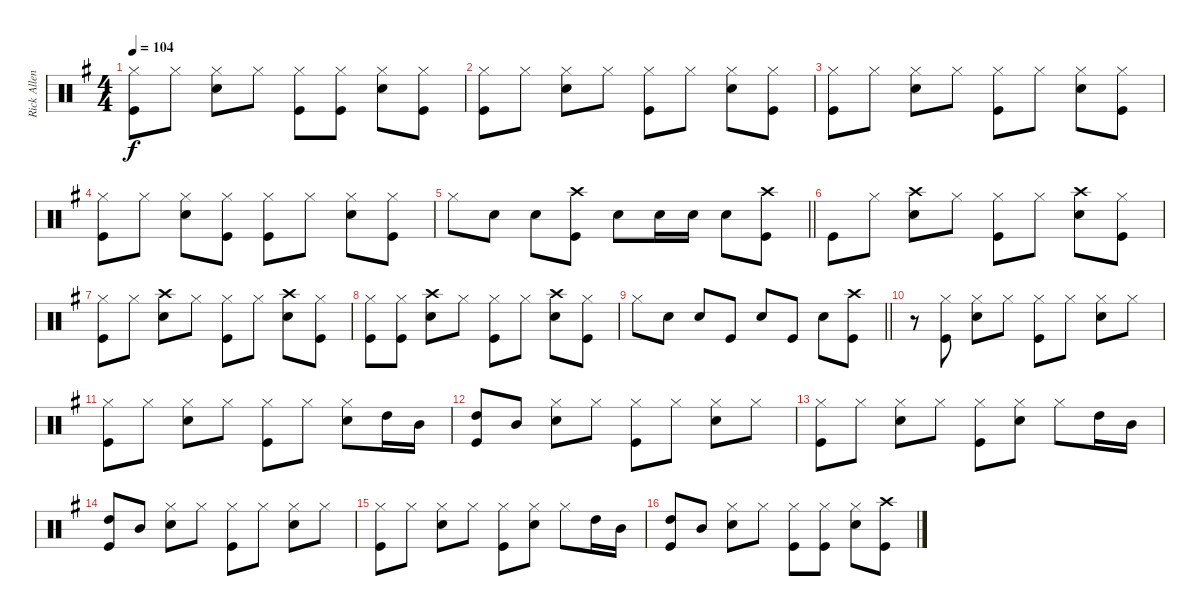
\track ("Rick Allen" "Rick Allen") {instrument percussion}
\staff {score}
\articulation defaults
\ts (4 4)
\tempo 104
\clef neutral
\ks eminor
("Hi-Hat (closed)" "Kick (hit)").8{dy f} "Hi-Hat (closed)".8 ("Hi-Hat (closed)" "Snare (hit) 2").8 "Hi-Hat (closed)".8 ("Hi-Hat (closed)" "Kick (hit)").8 ("Hi-Hat (closed)" "Kick (hit)").8 ("Hi-Hat (closed)" "Snare (hit) 2").8 ("Hi-Hat (closed)" "Kick (hit)").8 |
("Hi-Hat (closed)" "Kick (hit)").8 "Hi-Hat (closed)".8 ("Hi-Hat (closed)" "Snare (hit) 2").8 "Hi-Hat (closed)".8 ("Hi-Hat (closed)" "Kick (hit)").8 "Hi-Hat (closed)".8 ("Hi-Hat (closed)" "Snare (hit) 2").8 ("Hi-Hat (closed)" "Kick (hit)").8 |
("Hi-Hat (closed)" "Kick (hit)").8 "Hi-Hat (closed)".8 ("Hi-Hat (closed)" "Snare (hit) 2").8 "Hi-Hat (closed)".8 ("Hi-Hat (closed)" "Kick (hit)").8 "Hi-Hat (closed)".8 ("Hi-Hat (closed)" "Snare (hit) 2").8 ("Hi-Hat (closed)" "Kick (hit)").8 |
("Hi-Hat (closed)" "Kick (hit)").8 "Hi-Hat (closed)".8 ("Hi-Hat (closed)" "Snare (hit) 2").8 ("Hi-Hat (closed)" "Kick (hit)").8 ("Hi-Hat (closed)" "Kick (hit)").8 "Hi-Hat (closed)".8 ("Hi-Hat (closed)" "Snare (hit) 2").8 ("Hi-Hat (closed)" "Kick (hit)").8 |
\barLineRight lightlight "Hi-Hat (closed)".8 "Snare (hit) 2".8 "Snare (hit) 2".8
("Crash high (hit)" "Kick (hit)").8 "Snare (hit) 2".8 "Snare (hit) 2".16 "Snare (hit) 2".16 "Snare (hit) 2".8 ("Crash high (hit)" "Kick (hit)").8 |
"Kick (hit)".8 "Hi-Hat (closed)".8 ("Crash high (hit)" "Snare (hit) 2").8 "Hi-Hat (closed)".8 ("Hi-Hat (closed)" "Kick (hit)").8 "Hi-Hat (closed)".8 ("Crash high (hit)" "Snare (hit) 2").8 ("Hi-Hat (closed)" "Kick (hit)").8 |
("Hi-Hat (closed)" "Kick (hit)").8 "Hi-Hat (closed)".8 ("Crash high (hit)" "Snare (hit) 2").8 "Hi-Hat (closed)".8 ("Hi-Hat (closed)" "Kick (hit)").8 "Hi-Hat (closed)".8 ("Crash high (hit)" "Snare (hit) 2").8 ("Hi-Hat (closed)" "Kick (hit)").8 |
("Hi-Hat (closed)" "Kick (hit)").8 ("Hi-Hat (closed)" "Kick (hit)").8 ("Crash high (hit)" "Snare (hit) 2").8 "Hi-Hat (closed)".8 ("Hi-Hat (closed)" "Kick (hit)").8 "Hi-Hat (closed)".8 ("Crash high (hit)" "Snare (hit) 2").8 ("Hi-Hat (closed)" "Kick (hit)").8 |
\barLineRight lightlight "Hi-Hat (closed)".8 "Snare (hit) 2".8 "Snare (hit) 2".8 "Kick (hit)".8 "Snare (hit) 2".8 "Kick (hit)".8 "Snare (hit) 2".8
("Crash high (hit)" "Kick (hit)").8 |
r.8 ("Hi-Hat (closed)" "Kick (hit)").8 ("Hi-Hat (closed)" "Snare (hit) 2").8 "Hi-Hat (closed)".8 ("Hi-Hat (closed)" "Kick (hit)").8 "Hi-Hat (closed)".8 ("Hi-Hat (closed)" "Snare (hit) 2").8 "Hi-Hat (closed)".8 |
("Hi-Hat (closed)" "Kick (hit)").8 "Hi-Hat (closed)".8 ("Hi-Hat (closed)" "Snare (hit) 2").8 "Hi-Hat (closed)".8 ("Hi-Hat (closed)" "Kick (hit)").8 "Hi-Hat (closed)".8 ("Hi-Hat (closed)" "Snare (hit) 2").8 "High Tom (hit)".16 "Mid Tom (hit)".16 |
("High Tom (hit)" "Kick (hit)").8 "Mid Tom (hit)".8 ("Hi-Hat (closed)" "Snare (hit) 2").8 "Hi-Hat (closed)".8 ("Hi-Hat (closed)" "Kick (hit)").8 "Hi-Hat (closed)".8 ("Hi-Hat (closed)" "Snare (hit) 2").8 "Hi-Hat (closed)".8 |
("Hi-Hat (closed)" "Kick (hit)").8 "Hi-Hat (closed)".8 ("Hi-Hat (closed)" "Snare (hit) 2").8 "Hi-Hat (closed)".8 ("Hi-Hat (closed)" "Kick (hit)").8 ("Hi-Hat (closed)" "Snare (hit) 2").8 "Hi-Hat (closed)".8 "High Tom (hit)".16 "Mid Tom (hit)".16 |
("High Tom (hit)" "Kick (hit)").8 "Mid Tom (hit)".8 ("Hi-Hat (closed)" "Snare (hit) 2").8 "Hi-Hat (closed)".8 ("Hi-Hat (closed)" "Kick (hit)").8 "Hi-Hat (closed)".8 ("Hi-Hat (closed)" "Snare (hit) 2").8 "Hi-Hat (closed)".8 |
("Hi-Hat (closed)" "Kick (hit)").8 "Hi-Hat (closed)".8 ("Hi-Hat (closed)" "Snare (hit) 2").8 "Hi-Hat (closed)".8 ("Hi-Hat (closed)" "Kick (hit)").8 ("Hi-Hat (closed)" "Snare (hit) 2").8 "Hi-Hat (closed)".8 "High Tom (hit)".16 "Mid Tom (hit)".16 |
("High Tom (hit)" "Kick (hit)").8 "Mid Tom (hit)".8 ("Hi-Hat (closed)" "Snare (hit) 2").8 "Hi-Hat (closed)".8 ("Hi-Hat (closed)" "Kick (hit)").8 ("Hi-Hat (closed)" "Kick (hit)").8 ("Hi-Hat (closed)" "Snare (hit) 2").8 ("Crash high (hit)" "Kick (hit)").8
